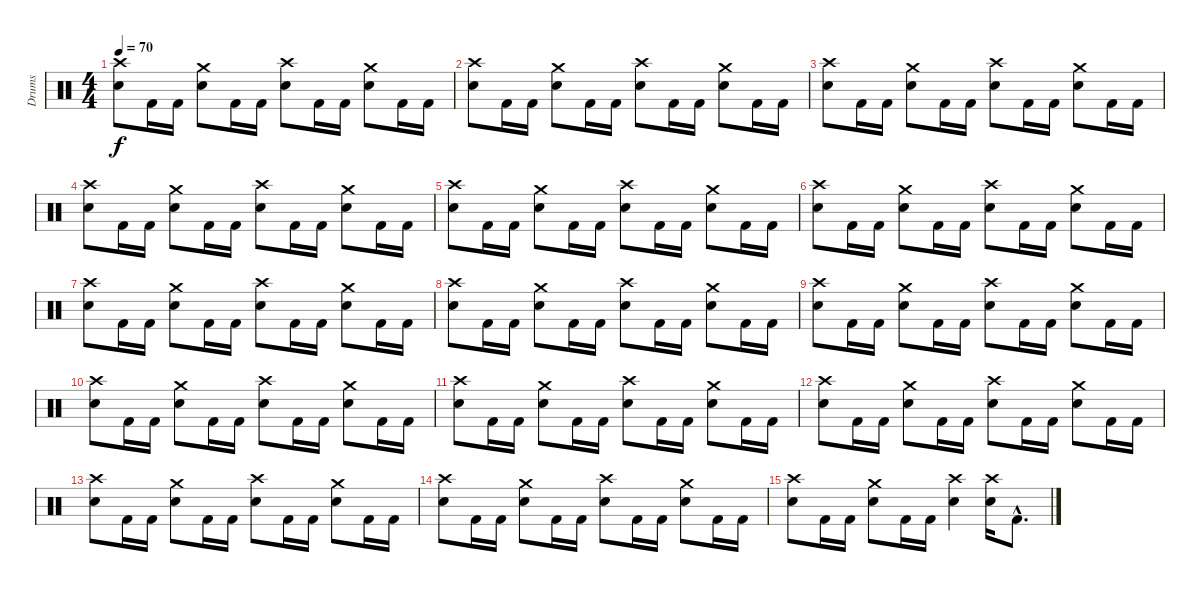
\track ("Drums" "Drums") {instrument percussion}
\staff {score}
\articulation defaults
\ts (4 4)
\tempo 70
\clef neutral
\ks c
("Crash high (hit)" "Electric Snare (hit)").8{dy f} "Kick (hit) 2".16 "Kick (hit) 2".16 ("Crash medium (hit)" "Electric Snare (hit)").8 "Kick (hit) 2".16 "Kick (hit) 2".16 ("Crash high (hit)" "Electric Snare (hit)").8 "Kick (hit) 2".16 "Kick (hit) 2".16 ("Crash medium (hit)" "Electric Snare (hit)").8 "Kick (hit) 2".16 "Kick (hit) 2".16 |
("Crash high (hit)" "Electric Snare (hit)").8 "Kick (hit) 2".16 "Kick (hit) 2".16 ("Crash medium (hit)" "Electric Snare (hit)").8 "Kick (hit) 2".16 "Kick (hit) 2".16 ("Crash high (hit)" "Electric Snare (hit)").8 "Kick (hit) 2".16 "Kick (hit) 2".16 ("Crash medium (hit)" "Electric Snare (hit)").8 "Kick (hit) 2".16 "Kick (hit) 2".16 |
("Crash high (hit)" "Electric Snare (hit)").8 "Kick (hit) 2".16 "Kick (hit) 2".16 ("Crash medium (hit)" "Electric Snare (hit)").8 "Kick (hit) 2".16 "Kick (hit) 2".16 ("Crash high (hit)" "Electric Snare (hit)").8 "Kick (hit) 2".16 "Kick (hit) 2".16 ("Crash medium (hit)" "Electric Snare (hit)").8 "Kick (hit) 2".16 "Kick (hit) 2".16 |
("Crash high (hit)" "Electric Snare (hit)").8 "Kick (hit) 2".16 "Kick (hit) 2".16 ("Crash medium (hit)" "Electric Snare (hit)").8 "Kick (hit) 2".16 "Kick (hit) 2".16 ("Crash high (hit)" "Electric Snare (hit)").8 "Kick (hit) 2".16 "Kick (hit) 2".16 ("Crash medium (hit)" "Electric Snare (hit)").8 "Kick (hit) 2".16 "Kick (hit) 2".16 |
("Crash high (hit)" "Electric Snare (hit)").8 "Kick (hit) 2".16 "Kick (hit) 2".16 ("Crash medium (hit)" "Electric Snare (hit)").8 "Kick (hit) 2".16 "Kick (hit) 2".16 ("Crash high (hit)" "Electric Snare (hit)").8 "Kick (hit) 2".16 "Kick (hit) 2".16 ("Crash medium (hit)" "Electric Snare (hit)").8 "Kick (hit) 2".16 "Kick (hit) 2".16 |
("Crash high (hit)" "Electric Snare (hit)").8 "Kick (hit) 2".16 "Kick (hit) 2".16 ("Crash medium (hit)" "Electric Snare (hit)").8 "Kick (hit) 2".16 "Kick (hit) 2".16 ("Crash high (hit)" "Electric Snare (hit)").8 "Kick (hit) 2".16 "Kick (hit) 2".16 ("Crash medium (hit)" "Electric Snare (hit)").8 "Kick (hit) 2".16 "Kick (hit) 2".16 |
("Crash high (hit)" "Electric Snare (hit)").8 "Kick (hit) 2".16 "Kick (hit) 2".16 ("Crash medium (hit)" "Electric Snare (hit)").8 "Kick (hit) 2".16 "Kick (hit) 2".16 ("Crash high (hit)" "Electric Snare (hit)").8 "Kick (hit) 2".16 "Kick (hit) 2".16 ("Crash medium (hit)" "Electric Snare (hit)").8 "Kick (hit) 2".16 "Kick (hit) 2".16 |
("Crash high (hit)" "Electric Snare (hit)").8 "Kick (hit) 2".16 "Kick (hit) 2".16 ("Crash medium (hit)" "Electric Snare (hit)").8 "Kick (hit) 2".16 "Kick (hit) 2".16 ("Crash high (hit)" "Electric Snare (hit)").8 "Kick (hit) 2".16 "Kick (hit) 2".16 ("Crash medium (hit)" "Electric Snare (hit)").8 "Kick (hit) 2".16 "Kick (hit) 2".16 |
("Crash high (hit)" "Electric Snare (hit)").8 "Kick (hit) 2".16 "Kick (hit) 2".16 ("Crash medium (hit)" "Electric Snare (hit)").8 "Kick (hit) 2".16 "Kick (hit) 2".16 ("Crash high (hit)" "Electric Snare (hit)").8 "Kick (hit) 2".16 "Kick (hit) 2".16 ("Crash medium (hit)" "Electric Snare (hit)").8 "Kick (hit) 2".16 "Kick (hit) 2".16 |
("Crash high (hit)" "Electric Snare (hit)").8 "Kick (hit) 2".16 "Kick (hit) 2".16 ("Crash medium (hit)" "Electric Snare (hit)").8 "Kick (hit) 2".16 "Kick (hit) 2".16 ("Crash high (hit)" "Electric Snare (hit)").8 "Kick (hit) 2".16 "Kick (hit) 2".16 ("Crash medium (hit)" "Electric Snare (hit)").8 "Kick (hit) 2".16 "Kick (hit) 2".16 |
("Crash high (hit)" "Electric Snare (hit)").8 "Kick (hit) 2".16 "Kick (hit) 2".16 ("Crash medium (hit)" "Electric Snare (hit)").8 "Kick (hit) 2".16 "Kick (hit) 2".16 ("Crash high (hit)" "Electric Snare (hit)").8 "Kick (hit) 2".16 "Kick (hit) 2".16 ("Crash medium (hit)" "Electric Snare (hit)").8 "Kick (hit) 2".16 "Kick (hit) 2".16 |
("Crash high (hit)" "Electric Snare (hit)").8 "Kick (hit) 2".16 "Kick (hit) 2".16 ("Crash medium (hit)" "Electric Snare (hit)").8 "Kick (hit) 2".16 "Kick (hit) 2".16 ("Crash high (hit)" "Electric Snare (hit)").8 "Kick (hit) 2".16 "Kick (hit) 2".16 ("Crash medium (hit)" "Electric Snare (hit)").8 "Kick (hit) 2".16 "Kick (hit) 2".16 |
("Crash high (hit)" "Electric Snare (hit)").8 "Kick (hit) 2".16 "Kick (hit) 2".16 ("Crash medium (hit)" "Electric Snare (hit)").8 "Kick (hit) 2".16 "Kick (hit) 2".16 ("Crash high (hit)" "Electric Snare (hit)").8 "Kick (hit) 2".16 "Kick (hit) 2".16 ("Crash medium (hit)" "Electric Snare (hit)").8 "Kick (hit) 2".16 "Kick (hit) 2".16 |
("Crash high (hit)" "Electric Snare (hit)").8 "Kick (hit) 2".16 "Kick (hit) 2".16 ("Crash medium (hit)" "Electric Snare (hit)").8 "Kick (hit) 2".16 "Kick (hit) 2".16 ("Crash high (hit)" "Electric Snare (hit)").8 "Kick (hit) 2".16 "Kick (hit) 2".16 ("Crash medium (hit)" "Electric Snare (hit)").8 "Kick (hit) 2".16 "Kick (hit) 2".16 |
("Crash high (hit)" "Electric Snare (hit)").8 "Kick (hit) 2".16 "Kick (hit) 2".16 ("Crash medium (hit)" "Electric Snare (hit)").8 "Kick (hit) 2".16 "Kick (hit) 2".16 ("Crash high (hit)" "Electric Snare (hit)").4 ("Crash high (hit)" "Electric Snare (hit)").16 "Kick (hit) 2"{hac}.8{d}
